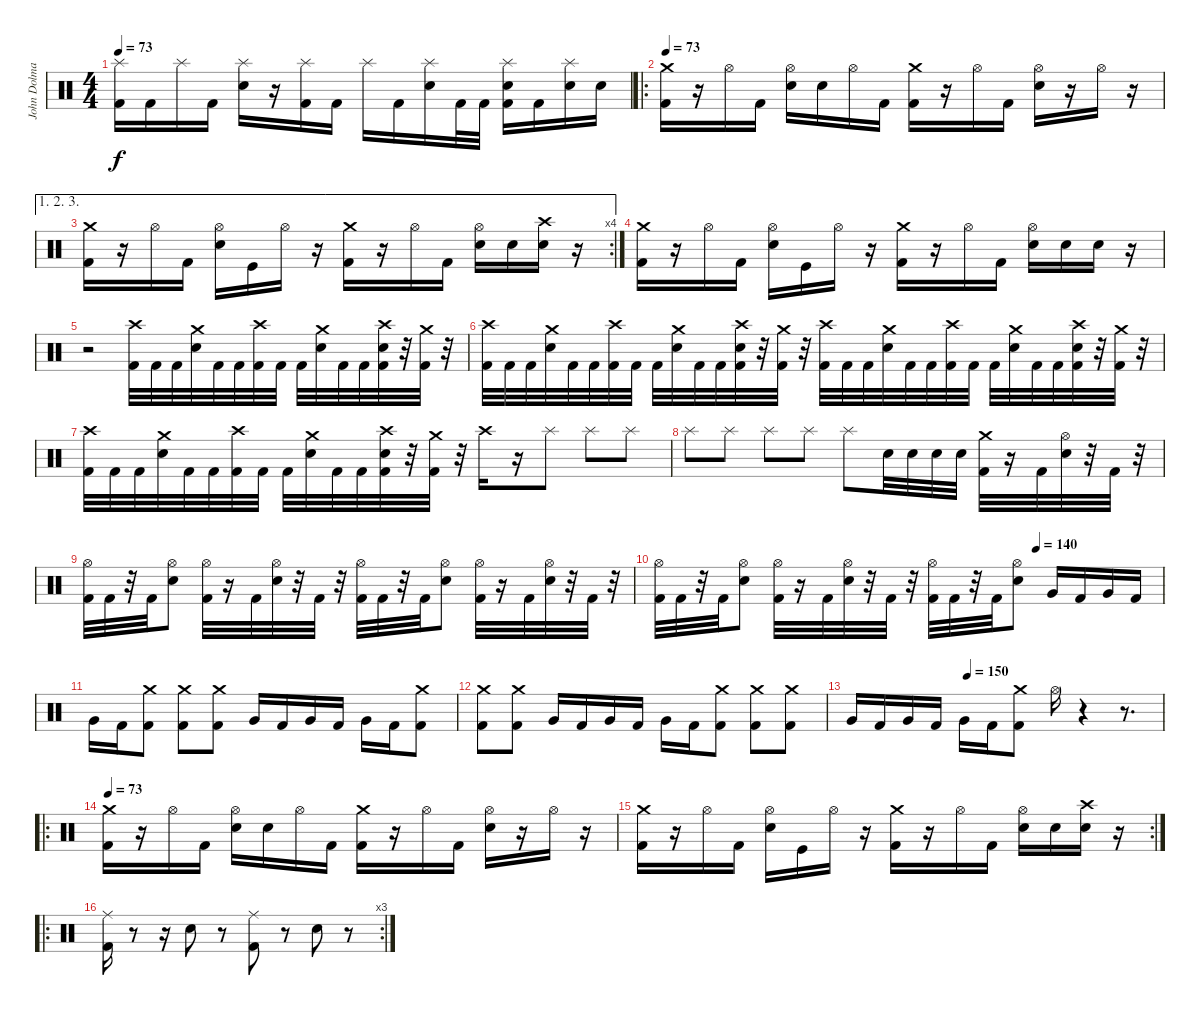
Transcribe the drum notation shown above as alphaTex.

\track ("John Dolmayan (Drums)" "John Dolma") {instrument percussion}
\staff {score}
\articulation defaults
\ts (4 4)
\tempo 73
\clef neutral
\ks c
("Splash (hit)" "Kick (hit) 2").16{dy f} "Kick (hit) 2".16 "Splash (hit)".16 "Kick (hit) 2".16 ("Splash (hit)" "Electric Snare (hit)").16 r.16 ("Splash (hit)" "Kick (hit) 2").16 "Kick (hit) 2".16 "Splash (hit)".16 "Kick (hit) 2".16 ("Splash (hit)" "Electric Snare (hit)").16 "Kick (hit) 2".32 "Kick (hit) 2".32 ("Splash (hit)" "Electric Snare (hit)" "Kick (hit) 2").16 "Kick (hit) 2".16 ("Splash (hit)" "Electric Snare (hit)").16 "Electric Snare (hit)".16 |
\ro
\tempo 73
("Crash medium (hit)" "Kick (hit) 2").16 r.16 "Hi-Hat (open)".16 "Kick (hit) 2".16 ("Hi-Hat (open)" "Electric Snare (hit)").16 "Electric Snare (hit)".16 "Hi-Hat (open)".16 "Kick (hit) 2".16 ("Crash medium (hit)" "Kick (hit) 2").16 r.16 "Hi-Hat (open)".16 "Kick (hit) 2".16 ("Hi-Hat (open)" "Electric Snare (hit)").16 r.16 "Hi-Hat (open)".16 r.16 |
\ae (1 2 3)
\rc 4
("Crash medium (hit)" "Kick (hit) 2").16 r.16 "Hi-Hat (open)".16 "Kick (hit) 2".16 ("Hi-Hat (open)" "Electric Snare (hit)").16 "Kick (hit)".16 "Hi-Hat (open)".16 r.16 ("Crash medium (hit)" "Kick (hit) 2").16 r.16 "Hi-Hat (open)".16 "Kick (hit) 2".16 ("Hi-Hat (open)" "Electric Snare (hit)").16 "Electric Snare (hit)".16 ("Crash high (hit)" "Electric Snare (hit)").16 r.16 |
("Crash medium (hit)" "Kick (hit) 2").16 r.16 "Hi-Hat (open)".16 "Kick (hit) 2".16 ("Hi-Hat (open)" "Electric Snare (hit)").16 "Kick (hit)".16 "Hi-Hat (open)".16 r.16 ("Crash medium (hit)" "Kick (hit) 2").16 r.16 "Hi-Hat (open)".16 "Kick (hit) 2".16 ("Hi-Hat (open)" "Electric Snare (hit)").16 "Electric Snare (hit)".16 "Electric Snare (hit)".16 r.16 |
r.2 ("Crash high (hit)" "Kick (hit) 2").32 "Kick (hit) 2".32 "Kick (hit) 2".32 ("Crash medium (hit)" "Electric Snare (hit)").32 "Kick (hit) 2".32 "Kick (hit) 2".32 ("Crash high (hit)" "Kick (hit) 2").32 "Kick (hit) 2".32 "Kick (hit) 2".32 ("Crash medium (hit)" "Electric Snare (hit)").32 "Kick (hit) 2".32 "Kick (hit) 2".32 ("Crash high (hit)" "Electric Snare (hit)" "Kick (hit) 2").32 r.32 ("Crash medium (hit)" "Kick (hit) 2").32 r.32 |
("Crash high (hit)" "Kick (hit) 2").32 "Kick (hit) 2".32 "Kick (hit) 2".32 ("Crash medium (hit)" "Electric Snare (hit)").32 "Kick (hit) 2".32 "Kick (hit) 2".32 ("Crash high (hit)" "Kick (hit) 2").32 "Kick (hit) 2".32 "Kick (hit) 2".32 ("Crash medium (hit)" "Electric Snare (hit)").32 "Kick (hit) 2".32 "Kick (hit) 2".32 ("Crash high (hit)" "Electric Snare (hit)" "Kick (hit) 2").32 r.32 ("Crash medium (hit)" "Kick (hit) 2").32 r.32 ("Crash high (hit)" "Kick (hit) 2").32 "Kick (hit) 2".32 "Kick (hit) 2".32 ("Crash medium (hit)" "Electric Snare (hit)").32 "Kick (hit) 2".32 "Kick (hit) 2".32 ("Crash high (hit)" "Kick (hit) 2").32 "Kick (hit) 2".32 "Kick (hit) 2".32 ("Crash medium (hit)" "Electric Snare (hit)").32 "Kick (hit) 2".32 "Kick (hit) 2".32 ("Crash high (hit)" "Electric Snare (hit)" "Kick (hit) 2").32 r.32 ("Crash medium (hit)" "Kick (hit) 2").32 r.32 |
("Crash high (hit)" "Kick (hit) 2").32 "Kick (hit) 2".32 "Kick (hit) 2".32 ("Crash medium (hit)" "Electric Snare (hit)").32 "Kick (hit) 2".32 "Kick (hit) 2".32 ("Crash high (hit)" "Kick (hit) 2").32 "Kick (hit) 2".32 "Kick (hit) 2".32 ("Crash medium (hit)" "Electric Snare (hit)").32 "Kick (hit) 2".32 "Kick (hit) 2".32 ("Crash high (hit)" "Electric Snare (hit)" "Kick (hit) 2").32 r.32 ("Crash medium (hit)" "Kick (hit) 2").32 r.32 "Crash high (hit)".16 r.16 "Splash (hit)".8 "Splash (hit)".8 "Splash (hit)".8 |
"Splash (hit)".8 "Splash (hit)".8 "Splash (hit)".8 "Splash (hit)".8 "Splash (hit)".8 "Electric Snare (hit)".32 "Electric Snare (hit)".32 "Electric Snare (hit)".32 "Electric Snare (hit)".32 ("Crash medium (hit)" "Kick (hit) 2").32 r.16 "Kick (hit) 2".32 ("Hi-Hat (open)" "Electric Snare (hit)").32 r.32 "Kick (hit) 2".32 r.32 |
("Hi-Hat (open)" "Kick (hit) 2").32 "Kick (hit) 2".32 r.32 "Kick (hit) 2".32 ("Hi-Hat (open)" "Electric Snare (hit)").8 ("Hi-Hat (open)" "Kick (hit) 2").32 r.16 "Kick (hit) 2".32 ("Hi-Hat (open)" "Electric Snare (hit)").32 r.32 "Kick (hit) 2".32 r.32 ("Hi-Hat (open)" "Kick (hit) 2").32 "Kick (hit) 2".32 r.32 "Kick (hit) 2".32 ("Hi-Hat (open)" "Electric Snare (hit)").8 ("Hi-Hat (open)" "Kick (hit) 2").32 r.16 "Kick (hit) 2".32 ("Hi-Hat (open)" "Electric Snare (hit)").32 r.32 "Kick (hit) 2".32 r.32 |
\tempo (140 0.75)
("Hi-Hat (open)" "Kick (hit) 2").32 "Kick (hit) 2".32 r.32 "Kick (hit) 2".32 ("Hi-Hat (open)" "Electric Snare (hit)").8 ("Hi-Hat (open)" "Kick (hit) 2").32 r.16 "Kick (hit) 2".32 ("Hi-Hat (open)" "Electric Snare (hit)").32 r.32 "Kick (hit) 2".32 r.32 ("Hi-Hat (open)" "Kick (hit) 2").32 "Kick (hit) 2".32 r.32 "Kick (hit) 2".32 ("Hi-Hat (open)" "Electric Snare (hit)").8 "Very Low Tom (hit)".16 "Kick (hit) 2".16 "Very Low Tom (hit)".16 "Kick (hit) 2".16 |
"Very Low Tom (hit)".16 "Kick (hit) 2".16 ("Crash medium (hit)" "Kick (hit) 2").8 ("Crash medium (hit)" "Kick (hit) 2").8 ("Crash medium (hit)" "Kick (hit) 2").8 "Very Low Tom (hit)".16 "Kick (hit) 2".16 "Very Low Tom (hit)".16 "Kick (hit) 2".16 "Very Low Tom (hit)".16 "Kick (hit) 2".16 ("Crash medium (hit)" "Kick (hit) 2").8 |
("Crash medium (hit)" "Kick (hit) 2").8 ("Crash medium (hit)" "Kick (hit) 2").8 "Very Low Tom (hit)".16 "Kick (hit) 2".16 "Very Low Tom (hit)".16 "Kick (hit) 2".16 "Very Low Tom (hit)".16 "Kick (hit) 2".16 ("Crash medium (hit)" "Kick (hit) 2").8 ("Crash medium (hit)" "Kick (hit) 2").8 ("Crash medium (hit)" "Kick (hit) 2").8 |
\tempo (150 0.375)
"Very Low Tom (hit)".16 "Kick (hit) 2".16 "Very Low Tom (hit)".16 "Kick (hit) 2".16 "Very Low Tom (hit)".16 "Kick (hit) 2".16 ("Crash medium (hit)" "Kick (hit) 2").8 "Hi-Hat (open)".16 r.4 r.8{d} |
\ro
\tempo 73
("Crash medium (hit)" "Kick (hit) 2").16 r.16 "Hi-Hat (open)".16 "Kick (hit) 2".16 ("Hi-Hat (open)" "Electric Snare (hit)").16 "Electric Snare (hit)".16 "Hi-Hat (open)".16 "Kick (hit) 2".16 ("Crash medium (hit)" "Kick (hit) 2").16 r.16 "Hi-Hat (open)".16 "Kick (hit) 2".16 ("Hi-Hat (open)" "Electric Snare (hit)").16 r.16 "Hi-Hat (open)".16 r.16 |
\rc 2
("Crash medium (hit)" "Kick (hit) 2").16 r.16 "Hi-Hat (open)".16 "Kick (hit) 2".16 ("Hi-Hat (open)" "Electric Snare (hit)").16 "Kick (hit)".16 "Hi-Hat (open)".16 r.16 ("Crash medium (hit)" "Kick (hit) 2").16 r.16 "Hi-Hat (open)".16 "Kick (hit) 2".16 ("Hi-Hat (open)" "Electric Snare (hit)").16 "Electric Snare (hit)".16 ("Crash high (hit)" "Electric Snare (hit)").16 r.16 |
\ro
\rc 3
("Ride (middle)" "Kick (hit) 2").16 r.8 r.16 "Electric Snare (hit)".8 r.8 ("Ride (middle)" "Kick (hit) 2").8 r.8 "Electric Snare (hit)".8 r.8
